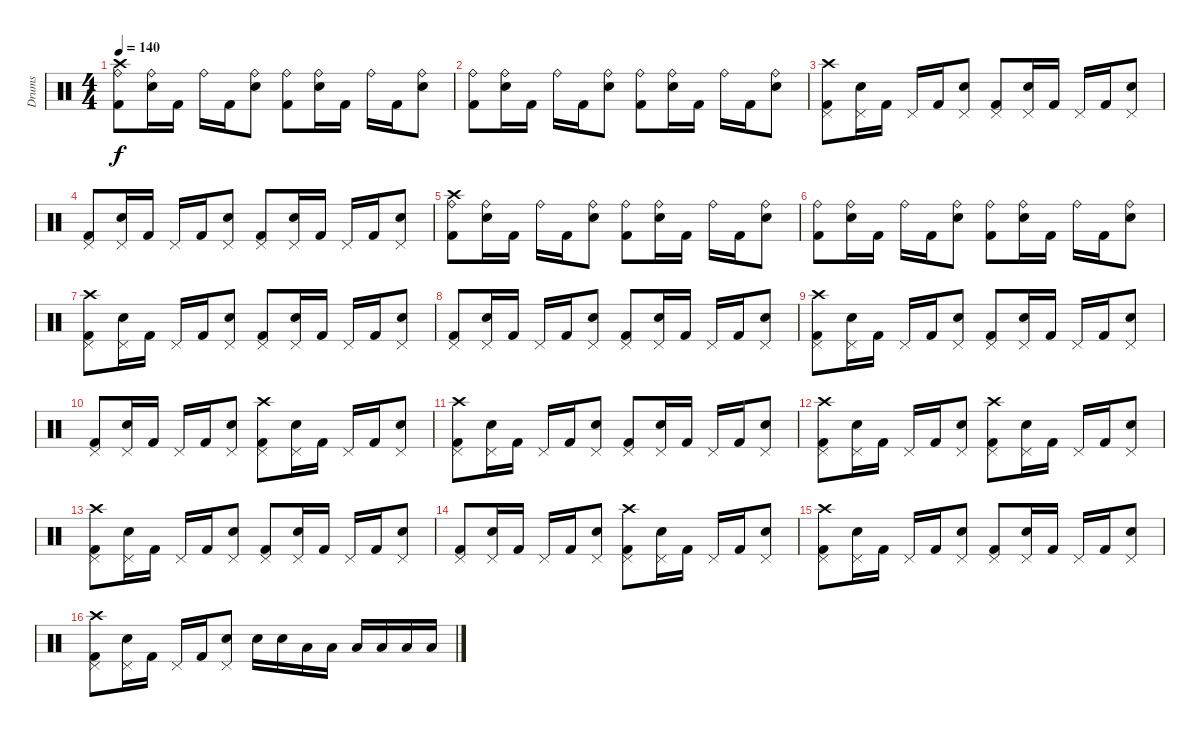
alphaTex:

\track ("Drums" "Drums") {instrument percussion}
\staff {score}
\articulation defaults
\ts (4 4)
\tempo 140
\clef neutral
\ks c
("Ride (bell)" "Crash high (hit)" "Kick (hit) 2").8{dy f} ("Ride (bell)" "Electric Snare (hit)").16 "Kick (hit) 2".16 "Ride (bell)".16 "Kick (hit) 2".16 ("Ride (bell)" "Electric Snare (hit)").8 ("Ride (bell)" "Kick (hit) 2").8 ("Ride (bell)" "Electric Snare (hit)").16 "Kick (hit) 2".16 "Ride (bell)".16 "Kick (hit) 2".16 ("Ride (bell)" "Electric Snare (hit)").8 |
("Ride (bell)" "Kick (hit) 2").8 ("Ride (bell)" "Electric Snare (hit)").16 "Kick (hit) 2".16 "Ride (bell)".16 "Kick (hit) 2".16 ("Ride (bell)" "Electric Snare (hit)").8 ("Ride (bell)" "Kick (hit) 2").8 ("Ride (bell)" "Electric Snare (hit)").16 "Kick (hit) 2".16 "Ride (bell)".16 "Kick (hit) 2".16 ("Ride (bell)" "Electric Snare (hit)").8 |
("Pedal Hi-Hat (hit)" "Crash high (hit)" "Kick (hit) 2").8 ("Pedal Hi-Hat (hit)" "Electric Snare (hit)").16 "Kick (hit) 2".16 "Pedal Hi-Hat (hit)".16 "Kick (hit) 2".16 ("Pedal Hi-Hat (hit)" "Electric Snare (hit)").8 ("Pedal Hi-Hat (hit)" "Kick (hit) 2").8 ("Pedal Hi-Hat (hit)" "Electric Snare (hit)").16 "Kick (hit) 2".16 "Pedal Hi-Hat (hit)".16 "Kick (hit) 2".16 ("Pedal Hi-Hat (hit)" "Electric Snare (hit)").8 |
("Pedal Hi-Hat (hit)" "Kick (hit) 2").8 ("Pedal Hi-Hat (hit)" "Electric Snare (hit)").16 "Kick (hit) 2".16 "Pedal Hi-Hat (hit)".16 "Kick (hit) 2".16 ("Pedal Hi-Hat (hit)" "Electric Snare (hit)").8 ("Pedal Hi-Hat (hit)" "Kick (hit) 2").8 ("Pedal Hi-Hat (hit)" "Electric Snare (hit)").16 "Kick (hit) 2".16 "Pedal Hi-Hat (hit)".16 "Kick (hit) 2".16 ("Pedal Hi-Hat (hit)" "Electric Snare (hit)").8 |
("Ride (bell)" "Crash high (hit)" "Kick (hit) 2").8 ("Ride (bell)" "Electric Snare (hit)").16 "Kick (hit) 2".16 "Ride (bell)".16 "Kick (hit) 2".16 ("Ride (bell)" "Electric Snare (hit)").8 ("Ride (bell)" "Kick (hit) 2").8 ("Ride (bell)" "Electric Snare (hit)").16 "Kick (hit) 2".16 "Ride (bell)".16 "Kick (hit) 2".16 ("Ride (bell)" "Electric Snare (hit)").8 |
("Ride (bell)" "Kick (hit) 2").8 ("Ride (bell)" "Electric Snare (hit)").16 "Kick (hit) 2".16 "Ride (bell)".16 "Kick (hit) 2".16 ("Ride (bell)" "Electric Snare (hit)").8 ("Ride (bell)" "Kick (hit) 2").8 ("Ride (bell)" "Electric Snare (hit)").16 "Kick (hit) 2".16 "Ride (bell)".16 "Kick (hit) 2".16 ("Ride (bell)" "Electric Snare (hit)").8 |
("Pedal Hi-Hat (hit)" "Crash high (hit)" "Kick (hit) 2").8 ("Pedal Hi-Hat (hit)" "Electric Snare (hit)").16 "Kick (hit) 2".16 "Pedal Hi-Hat (hit)".16 "Kick (hit) 2".16 ("Pedal Hi-Hat (hit)" "Electric Snare (hit)").8 ("Pedal Hi-Hat (hit)" "Kick (hit) 2").8 ("Pedal Hi-Hat (hit)" "Electric Snare (hit)").16 "Kick (hit) 2".16 "Pedal Hi-Hat (hit)".16 "Kick (hit) 2".16 ("Pedal Hi-Hat (hit)" "Electric Snare (hit)").8 |
("Pedal Hi-Hat (hit)" "Kick (hit) 2").8 ("Pedal Hi-Hat (hit)" "Electric Snare (hit)").16 "Kick (hit) 2".16 "Pedal Hi-Hat (hit)".16 "Kick (hit) 2".16 ("Pedal Hi-Hat (hit)" "Electric Snare (hit)").8 ("Pedal Hi-Hat (hit)" "Kick (hit) 2").8 ("Pedal Hi-Hat (hit)" "Electric Snare (hit)").16 "Kick (hit) 2".16 "Pedal Hi-Hat (hit)".16 "Kick (hit) 2".16 ("Pedal Hi-Hat (hit)" "Electric Snare (hit)").8 |
("Pedal Hi-Hat (hit)" "Crash high (hit)" "Kick (hit) 2").8 ("Pedal Hi-Hat (hit)" "Electric Snare (hit)").16 "Kick (hit) 2".16 "Pedal Hi-Hat (hit)".16 "Kick (hit) 2".16 ("Pedal Hi-Hat (hit)" "Electric Snare (hit)").8 ("Pedal Hi-Hat (hit)" "Kick (hit) 2").8 ("Pedal Hi-Hat (hit)" "Electric Snare (hit)").16 "Kick (hit) 2".16 "Pedal Hi-Hat (hit)".16 "Kick (hit) 2".16 ("Pedal Hi-Hat (hit)" "Electric Snare (hit)").8 |
("Pedal Hi-Hat (hit)" "Kick (hit) 2").8 ("Pedal Hi-Hat (hit)" "Electric Snare (hit)").16 "Kick (hit) 2".16 "Pedal Hi-Hat (hit)".16 "Kick (hit) 2".16 ("Pedal Hi-Hat (hit)" "Electric Snare (hit)").8 ("Pedal Hi-Hat (hit)" "Crash high (hit)" "Kick (hit) 2").8 ("Pedal Hi-Hat (hit)" "Electric Snare (hit)").16 "Kick (hit) 2".16 "Pedal Hi-Hat (hit)".16 "Kick (hit) 2".16 ("Pedal Hi-Hat (hit)" "Electric Snare (hit)").8 |
("Pedal Hi-Hat (hit)" "Crash high (hit)" "Kick (hit) 2").8 ("Pedal Hi-Hat (hit)" "Electric Snare (hit)").16 "Kick (hit) 2".16 "Pedal Hi-Hat (hit)".16 "Kick (hit) 2".16 ("Pedal Hi-Hat (hit)" "Electric Snare (hit)").8 ("Pedal Hi-Hat (hit)" "Kick (hit) 2").8 ("Pedal Hi-Hat (hit)" "Electric Snare (hit)").16 "Kick (hit) 2".16 "Pedal Hi-Hat (hit)".16 "Kick (hit) 2".16 ("Pedal Hi-Hat (hit)" "Electric Snare (hit)").8 |
("Pedal Hi-Hat (hit)" "Crash high (hit)" "Kick (hit) 2").8 ("Pedal Hi-Hat (hit)" "Electric Snare (hit)").16 "Kick (hit) 2".16 "Pedal Hi-Hat (hit)".16 "Kick (hit) 2".16 ("Pedal Hi-Hat (hit)" "Electric Snare (hit)").8 ("Pedal Hi-Hat (hit)" "Crash high (hit)" "Kick (hit) 2").8 ("Pedal Hi-Hat (hit)" "Electric Snare (hit)").16 "Kick (hit) 2".16 "Pedal Hi-Hat (hit)".16 "Kick (hit) 2".16 ("Pedal Hi-Hat (hit)" "Electric Snare (hit)").8 |
("Pedal Hi-Hat (hit)" "Crash high (hit)" "Kick (hit) 2").8 ("Pedal Hi-Hat (hit)" "Electric Snare (hit)").16 "Kick (hit) 2".16 "Pedal Hi-Hat (hit)".16 "Kick (hit) 2".16 ("Pedal Hi-Hat (hit)" "Electric Snare (hit)").8 ("Pedal Hi-Hat (hit)" "Kick (hit) 2").8 ("Pedal Hi-Hat (hit)" "Electric Snare (hit)").16 "Kick (hit) 2".16 "Pedal Hi-Hat (hit)".16 "Kick (hit) 2".16 ("Pedal Hi-Hat (hit)" "Electric Snare (hit)").8 |
("Pedal Hi-Hat (hit)" "Kick (hit) 2").8 ("Pedal Hi-Hat (hit)" "Electric Snare (hit)").16 "Kick (hit) 2".16 "Pedal Hi-Hat (hit)".16 "Kick (hit) 2".16 ("Pedal Hi-Hat (hit)" "Electric Snare (hit)").8 ("Pedal Hi-Hat (hit)" "Crash high (hit)" "Kick (hit) 2").8 ("Pedal Hi-Hat (hit)" "Electric Snare (hit)").16 "Kick (hit) 2".16 "Pedal Hi-Hat (hit)".16 "Kick (hit) 2".16 ("Pedal Hi-Hat (hit)" "Electric Snare (hit)").8 |
("Pedal Hi-Hat (hit)" "Crash high (hit)" "Kick (hit) 2").8 ("Pedal Hi-Hat (hit)" "Electric Snare (hit)").16 "Kick (hit) 2".16 "Pedal Hi-Hat (hit)".16 "Kick (hit) 2".16 ("Pedal Hi-Hat (hit)" "Electric Snare (hit)").8 ("Pedal Hi-Hat (hit)" "Kick (hit) 2").8 ("Pedal Hi-Hat (hit)" "Electric Snare (hit)").16 "Kick (hit) 2".16 "Pedal Hi-Hat (hit)".16 "Kick (hit) 2".16 ("Pedal Hi-Hat (hit)" "Electric Snare (hit)").8 |
("Pedal Hi-Hat (hit)" "Crash high (hit)" "Kick (hit) 2").8 ("Pedal Hi-Hat (hit)" "Electric Snare (hit)").16 "Kick (hit) 2".16 "Pedal Hi-Hat (hit)".16 "Kick (hit) 2".16 ("Pedal Hi-Hat (hit)" "Electric Snare (hit)").8 "Electric Snare (hit)".16 "Electric Snare (hit)".16 "Low Tom (hit)".16 "Low Tom (hit)".16 "Low Floor Tom (hit)".16 "Low Floor Tom (hit)".16 "Low Floor Tom (hit)".16 "Low Floor Tom (hit)".16
